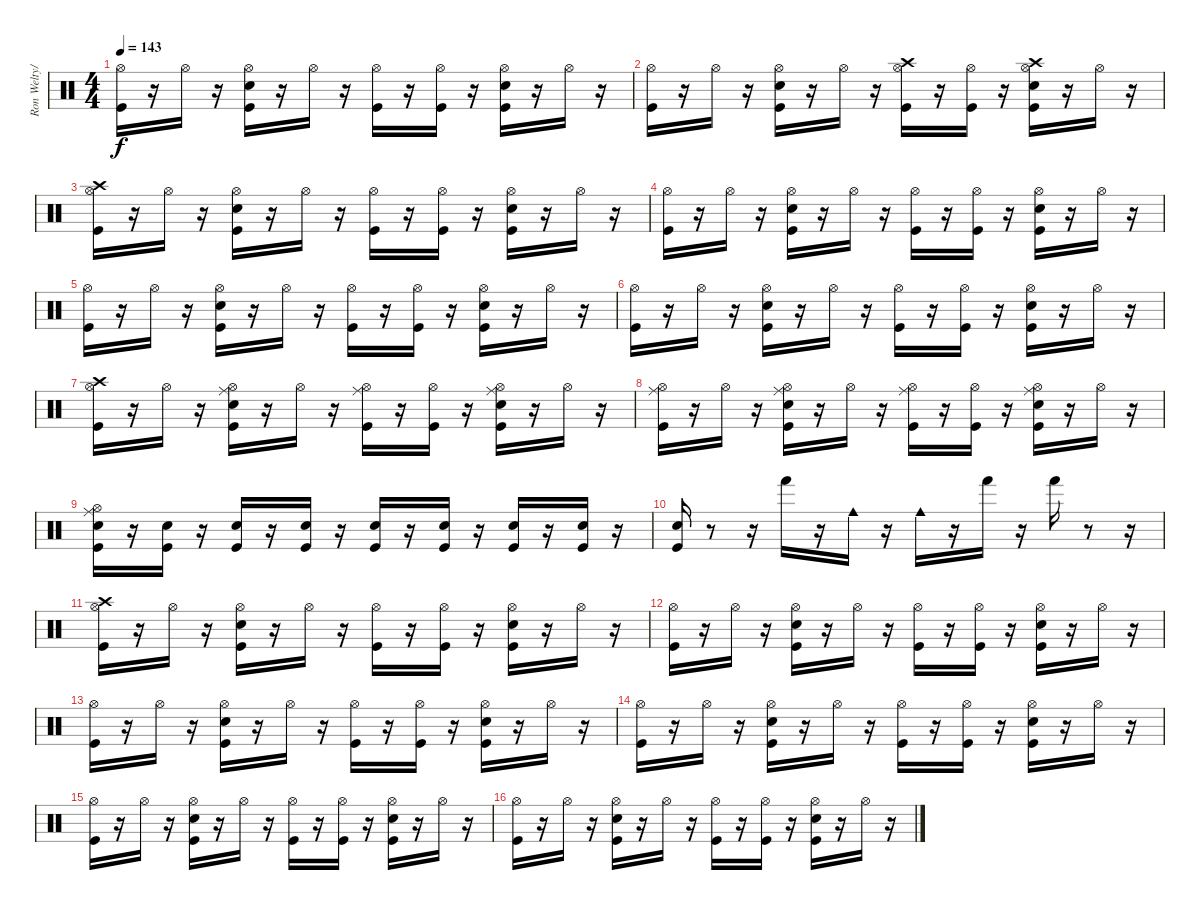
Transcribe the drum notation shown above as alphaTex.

\track ("Ron Welty/Atom Willard" "Ron Welty/") {instrument percussion}
\staff {score}
\articulation defaults
\ts (4 4)
\tempo 143
\clef neutral
\ks c
("Hi-Hat (open)" "Kick (hit)").16{dy f} r.16 "Hi-Hat (open)".16 r.16 ("Snare (hit) 2" "Kick (hit)" "Hi-Hat (open)").16 r.16 "Hi-Hat (open)".16 r.16 ("Kick (hit)" "Hi-Hat (open)").16 r.16 ("Kick (hit)" "Hi-Hat (open)").16 r.16 ("Kick (hit)" "Snare (hit) 2" "Hi-Hat (open)").16 r.16 "Hi-Hat (open)".16 r.16 |
("Hi-Hat (open)" "Kick (hit)").16 r.16 "Hi-Hat (open)".16 r.16 ("Snare (hit) 2" "Kick (hit)" "Hi-Hat (open)").16 r.16 "Hi-Hat (open)".16 r.16 ("Kick (hit)" "Hi-Hat (open)" "Crash high (hit)").16 r.16 ("Kick (hit)" "Hi-Hat (open)").16 r.16 ("Kick (hit)" "Snare (hit) 2" "Hi-Hat (open)" "Crash high (hit)").16 r.16 "Hi-Hat (open)".16 r.16 |
("Hi-Hat (open)" "Kick (hit)" "Crash high (hit)").16 r.16 "Hi-Hat (open)".16 r.16 ("Snare (hit) 2" "Kick (hit)" "Hi-Hat (open)").16 r.16 "Hi-Hat (open)".16 r.16 ("Kick (hit)" "Hi-Hat (open)").16 r.16 ("Kick (hit)" "Hi-Hat (open)").16 r.16 ("Kick (hit)" "Snare (hit) 2" "Hi-Hat (open)").16 r.16 "Hi-Hat (open)".16 r.16 |
("Hi-Hat (open)" "Kick (hit)").16 r.16 "Hi-Hat (open)".16 r.16 ("Snare (hit) 2" "Kick (hit)" "Hi-Hat (open)").16 r.16 "Hi-Hat (open)".16 r.16 ("Kick (hit)" "Hi-Hat (open)").16 r.16 ("Kick (hit)" "Hi-Hat (open)").16 r.16 ("Kick (hit)" "Snare (hit) 2" "Hi-Hat (open)").16 r.16 "Hi-Hat (open)".16 r.16 |
("Hi-Hat (open)" "Kick (hit)").16 r.16 "Hi-Hat (open)".16 r.16 ("Snare (hit) 2" "Kick (hit)" "Hi-Hat (open)").16 r.16 "Hi-Hat (open)".16 r.16 ("Kick (hit)" "Hi-Hat (open)").16 r.16 ("Kick (hit)" "Hi-Hat (open)").16 r.16 ("Kick (hit)" "Snare (hit) 2" "Hi-Hat (open)").16 r.16 "Hi-Hat (open)".16 r.16 |
("Hi-Hat (open)" "Kick (hit)").16 r.16 "Hi-Hat (open)".16 r.16 ("Snare (hit) 2" "Kick (hit)" "Hi-Hat (open)").16 r.16 "Hi-Hat (open)".16 r.16 ("Kick (hit)" "Hi-Hat (open)").16 r.16 ("Kick (hit)" "Hi-Hat (open)").16 r.16 ("Kick (hit)" "Snare (hit) 2" "Hi-Hat (open)").16 r.16 "Hi-Hat (open)".16 r.16 |
("Hi-Hat (open)" "Kick (hit)" "Crash high (hit)").16 r.16 "Hi-Hat (open)".16 r.16 ("Snare (hit) 2" "Kick (hit)" "Hi-Hat (open)" "Ride (middle)").16 r.16 "Hi-Hat (open)".16 r.16 ("Kick (hit)" "Hi-Hat (open)" "Ride (middle)").16 r.16 ("Kick (hit)" "Hi-Hat (open)").16 r.16 ("Kick (hit)" "Snare (hit) 2" "Hi-Hat (open)" "Ride (middle)").16 r.16 "Hi-Hat (open)".16 r.16 |
("Hi-Hat (open)" "Kick (hit)" "Ride (middle)").16 r.16 "Hi-Hat (open)".16 r.16 ("Snare (hit) 2" "Kick (hit)" "Hi-Hat (open)" "Ride (middle)").16 r.16 "Hi-Hat (open)".16 r.16 ("Kick (hit)" "Hi-Hat (open)" "Ride (middle)").16 r.16 ("Kick (hit)" "Hi-Hat (open)").16 r.16 ("Kick (hit)" "Snare (hit) 2" "Hi-Hat (open)" "Ride (middle)").16 r.16 "Hi-Hat (open)".16 r.16 |
("Hi-Hat (open)" "Kick (hit)" "Snare (hit) 2" "Ride (middle)").16 r.16 ("Kick (hit)" "Snare (hit) 2").16 r.16 ("Kick (hit)" "Snare (hit) 2").16 r.16 ("Kick (hit)" "Snare (hit) 2").16 r.16 ("Kick (hit)" "Snare (hit) 2").16 r.16 ("Kick (hit)" "Snare (hit) 2").16 r.16 ("Kick (hit)" "Snare (hit) 2").16 r.16 ("Kick (hit)" "Snare (hit) 2").16 r.16 |
("Kick (hit)" "Snare (hit) 2").16 r.8 r.16 "Hand (hit)".16 r.16 "Cowbell medium (hit)".16 r.16 "Cowbell medium (hit)".16 r.16 "Hand (hit)".16 r.16 "Hand (hit)".16 r.8 r.16 |
("Kick (hit)" "Hi-Hat (open)" "Crash high (hit)").16 r.16 "Hi-Hat (open)".16 r.16 ("Snare (hit) 2" "Kick (hit)" "Hi-Hat (open)").16 r.16 "Hi-Hat (open)".16 r.16 ("Kick (hit)" "Hi-Hat (open)").16 r.16 ("Kick (hit)" "Hi-Hat (open)").16 r.16 ("Kick (hit)" "Snare (hit) 2" "Hi-Hat (open)").16 r.16 "Hi-Hat (open)".16 r.16 |
("Kick (hit)" "Hi-Hat (open)").16 r.16 "Hi-Hat (open)".16 r.16 ("Snare (hit) 2" "Kick (hit)" "Hi-Hat (open)").16 r.16 "Hi-Hat (open)".16 r.16 ("Kick (hit)" "Hi-Hat (open)").16 r.16 ("Kick (hit)" "Hi-Hat (open)").16 r.16 ("Kick (hit)" "Snare (hit) 2" "Hi-Hat (open)").16 r.16 "Hi-Hat (open)".16 r.16 |
("Kick (hit)" "Hi-Hat (open)").16 r.16 "Hi-Hat (open)".16 r.16 ("Snare (hit) 2" "Kick (hit)" "Hi-Hat (open)").16 r.16 "Hi-Hat (open)".16 r.16 ("Kick (hit)" "Hi-Hat (open)").16 r.16 ("Kick (hit)" "Hi-Hat (open)").16 r.16 ("Kick (hit)" "Snare (hit) 2" "Hi-Hat (open)").16 r.16 "Hi-Hat (open)".16 r.16 |
("Kick (hit)" "Hi-Hat (open)").16 r.16 "Hi-Hat (open)".16 r.16 ("Snare (hit) 2" "Kick (hit)" "Hi-Hat (open)").16 r.16 "Hi-Hat (open)".16 r.16 ("Kick (hit)" "Hi-Hat (open)").16 r.16 ("Kick (hit)" "Hi-Hat (open)").16 r.16 ("Kick (hit)" "Snare (hit) 2" "Hi-Hat (open)").16 r.16 "Hi-Hat (open)".16 r.16 |
("Kick (hit)" "Hi-Hat (open)").16 r.16 "Hi-Hat (open)".16 r.16 ("Snare (hit) 2" "Kick (hit)" "Hi-Hat (open)").16 r.16 "Hi-Hat (open)".16 r.16 ("Kick (hit)" "Hi-Hat (open)").16 r.16 ("Kick (hit)" "Hi-Hat (open)").16 r.16 ("Kick (hit)" "Snare (hit) 2" "Hi-Hat (open)").16 r.16 "Hi-Hat (open)".16 r.16 |
("Kick (hit)" "Hi-Hat (open)").16 r.16 "Hi-Hat (open)".16 r.16 ("Snare (hit) 2" "Kick (hit)" "Hi-Hat (open)").16 r.16 "Hi-Hat (open)".16 r.16 ("Kick (hit)" "Hi-Hat (open)").16 r.16 ("Kick (hit)" "Hi-Hat (open)").16 r.16 ("Kick (hit)" "Snare (hit) 2" "Hi-Hat (open)").16 r.16 "Hi-Hat (open)".16 r.16
